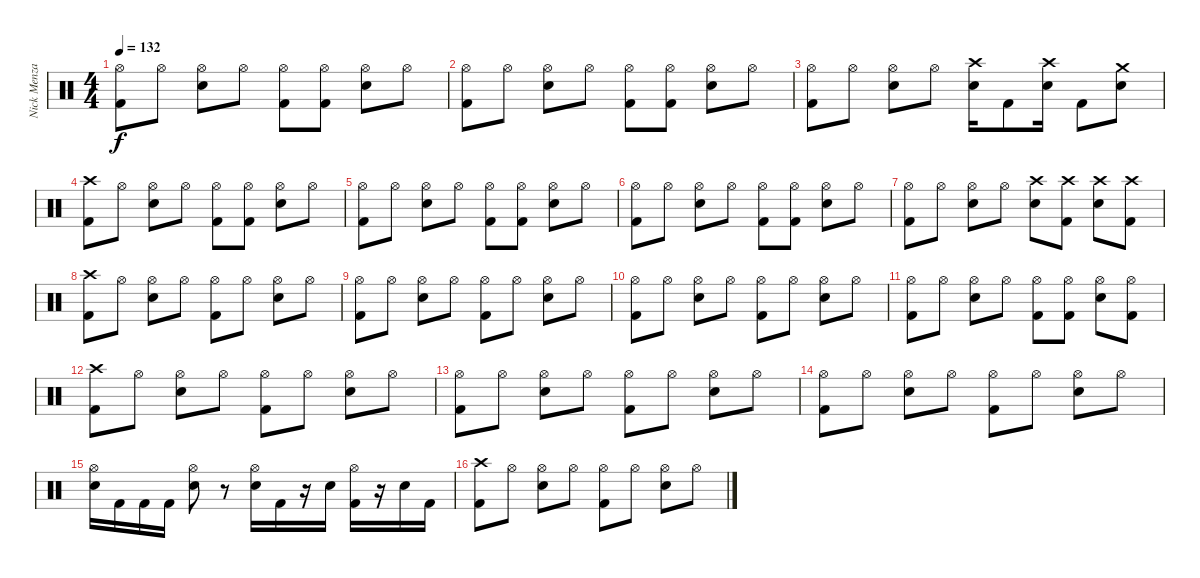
\track ("Nick Menza (Drums)" "Nick Menza") {instrument percussion}
\staff {score}
\articulation defaults
\ts (4 4)
\tempo 132
\clef neutral
\ks c
("Hi-Hat (open)" "Kick (hit) 2").8{dy f} "Hi-Hat (open)".8 ("Hi-Hat (open)" "Snare (hit) 2").8 "Hi-Hat (open)".8 ("Hi-Hat (open)" "Kick (hit) 2").8 ("Hi-Hat (open)" "Kick (hit) 2").8 ("Hi-Hat (open)" "Snare (hit) 2").8 "Hi-Hat (open)".8 |
("Hi-Hat (open)" "Kick (hit) 2").8 "Hi-Hat (open)".8 ("Hi-Hat (open)" "Snare (hit) 2").8 "Hi-Hat (open)".8 ("Hi-Hat (open)" "Kick (hit) 2").8 ("Hi-Hat (open)" "Kick (hit) 2").8 ("Hi-Hat (open)" "Snare (hit) 2").8 "Hi-Hat (open)".8 |
("Hi-Hat (open)" "Kick (hit) 2").8 "Hi-Hat (open)".8 ("Hi-Hat (open)" "Snare (hit) 2").8 "Hi-Hat (open)".8 ("Crash high (hit)" "Snare (hit) 2").16 "Kick (hit) 2".8 ("Crash high (hit)" "Snare (hit) 2").16 "Kick (hit) 2".8 ("Crash medium (hit)" "Snare (hit) 2").8 |
("Crash high (hit)" "Kick (hit) 2").8 "Hi-Hat (open)".8 ("Hi-Hat (open)" "Snare (hit) 2").8 "Hi-Hat (open)".8 ("Hi-Hat (open)" "Kick (hit) 2").8 ("Hi-Hat (open)" "Kick (hit) 2").8 ("Hi-Hat (open)" "Snare (hit) 2").8 "Hi-Hat (open)".8 |
("Hi-Hat (open)" "Kick (hit) 2").8 "Hi-Hat (open)".8 ("Hi-Hat (open)" "Snare (hit) 2").8 "Hi-Hat (open)".8 ("Hi-Hat (open)" "Kick (hit) 2").8 ("Hi-Hat (open)" "Kick (hit) 2").8 ("Hi-Hat (open)" "Snare (hit) 2").8 "Hi-Hat (open)".8 |
("Hi-Hat (open)" "Kick (hit) 2").8 "Hi-Hat (open)".8 ("Hi-Hat (open)" "Snare (hit) 2").8 "Hi-Hat (open)".8 ("Hi-Hat (open)" "Kick (hit) 2").8 ("Hi-Hat (open)" "Kick (hit) 2").8 ("Hi-Hat (open)" "Snare (hit) 2").8 "Hi-Hat (open)".8 |
("Hi-Hat (open)" "Kick (hit) 2").8 "Hi-Hat (open)".8 ("Hi-Hat (open)" "Snare (hit) 2").8 "Hi-Hat (open)".8 ("Crash high (hit)" "Snare (hit) 2").8 ("Crash high (hit)" "Kick (hit) 2").8 ("Crash high (hit)" "Snare (hit) 2").8 ("Crash high (hit)" "Kick (hit) 2").8 |
("Crash high (hit)" "Kick (hit) 2").8 "Hi-Hat (open)".8 ("Hi-Hat (open)" "Snare (hit) 2").8 "Hi-Hat (open)".8 ("Hi-Hat (open)" "Kick (hit) 2").8 "Hi-Hat (open)".8 ("Hi-Hat (open)" "Snare (hit) 2").8 "Hi-Hat (open)".8 |
("Hi-Hat (open)" "Kick (hit) 2").8 "Hi-Hat (open)".8 ("Hi-Hat (open)" "Snare (hit) 2").8 "Hi-Hat (open)".8 ("Hi-Hat (open)" "Kick (hit) 2").8 "Hi-Hat (open)".8 ("Hi-Hat (open)" "Snare (hit) 2").8 "Hi-Hat (open)".8 |
("Hi-Hat (open)" "Kick (hit) 2").8 "Hi-Hat (open)".8 ("Hi-Hat (open)" "Snare (hit) 2").8 "Hi-Hat (open)".8 ("Hi-Hat (open)" "Kick (hit) 2").8 "Hi-Hat (open)".8 ("Hi-Hat (open)" "Snare (hit) 2").8 "Hi-Hat (open)".8 |
("Hi-Hat (open)" "Kick (hit) 2").8 "Hi-Hat (open)".8 ("Hi-Hat (open)" "Snare (hit) 2").8 "Hi-Hat (open)".8 ("Hi-Hat (open)" "Kick (hit) 2").8 ("Hi-Hat (open)" "Kick (hit) 2").8 ("Hi-Hat (open)" "Snare (hit) 2").8 ("Hi-Hat (open)" "Kick (hit) 2").8 |
("Crash high (hit)" "Kick (hit) 2").8 "Hi-Hat (open)".8 ("Hi-Hat (open)" "Snare (hit) 2").8 "Hi-Hat (open)".8 ("Hi-Hat (open)" "Kick (hit) 2").8 "Hi-Hat (open)".8 ("Hi-Hat (open)" "Snare (hit) 2").8 "Hi-Hat (open)".8 |
("Hi-Hat (open)" "Kick (hit) 2").8 "Hi-Hat (open)".8 ("Hi-Hat (open)" "Snare (hit) 2").8 "Hi-Hat (open)".8 ("Hi-Hat (open)" "Kick (hit) 2").8 "Hi-Hat (open)".8 ("Hi-Hat (open)" "Snare (hit) 2").8 "Hi-Hat (open)".8 |
("Hi-Hat (open)" "Kick (hit) 2").8 "Hi-Hat (open)".8 ("Hi-Hat (open)" "Snare (hit) 2").8 "Hi-Hat (open)".8 ("Hi-Hat (open)" "Kick (hit) 2").8 "Hi-Hat (open)".8 ("Hi-Hat (open)" "Snare (hit) 2").8 "Hi-Hat (open)".8 |
("Hi-Hat (open)" "Snare (hit) 2").16 "Kick (hit) 2".16 "Kick (hit) 2".16 "Kick (hit) 2".16 ("Hi-Hat (open)" "Snare (hit) 2").8 r.8 ("Hi-Hat (open)" "Snare (hit) 2").16 "Kick (hit) 2".16 r.16 "Snare (hit) 2".16 ("Hi-Hat (open)" "Kick (hit) 2").16 r.16 "Snare (hit) 2".16 "Kick (hit) 2".16 |
("Crash high (hit)" "Kick (hit) 2").8 "Hi-Hat (open)".8 ("Hi-Hat (open)" "Snare (hit) 2").8 "Hi-Hat (open)".8 ("Hi-Hat (open)" "Kick (hit) 2").8 "Hi-Hat (open)".8 ("Hi-Hat (open)" "Snare (hit) 2").8 "Hi-Hat (open)".8
